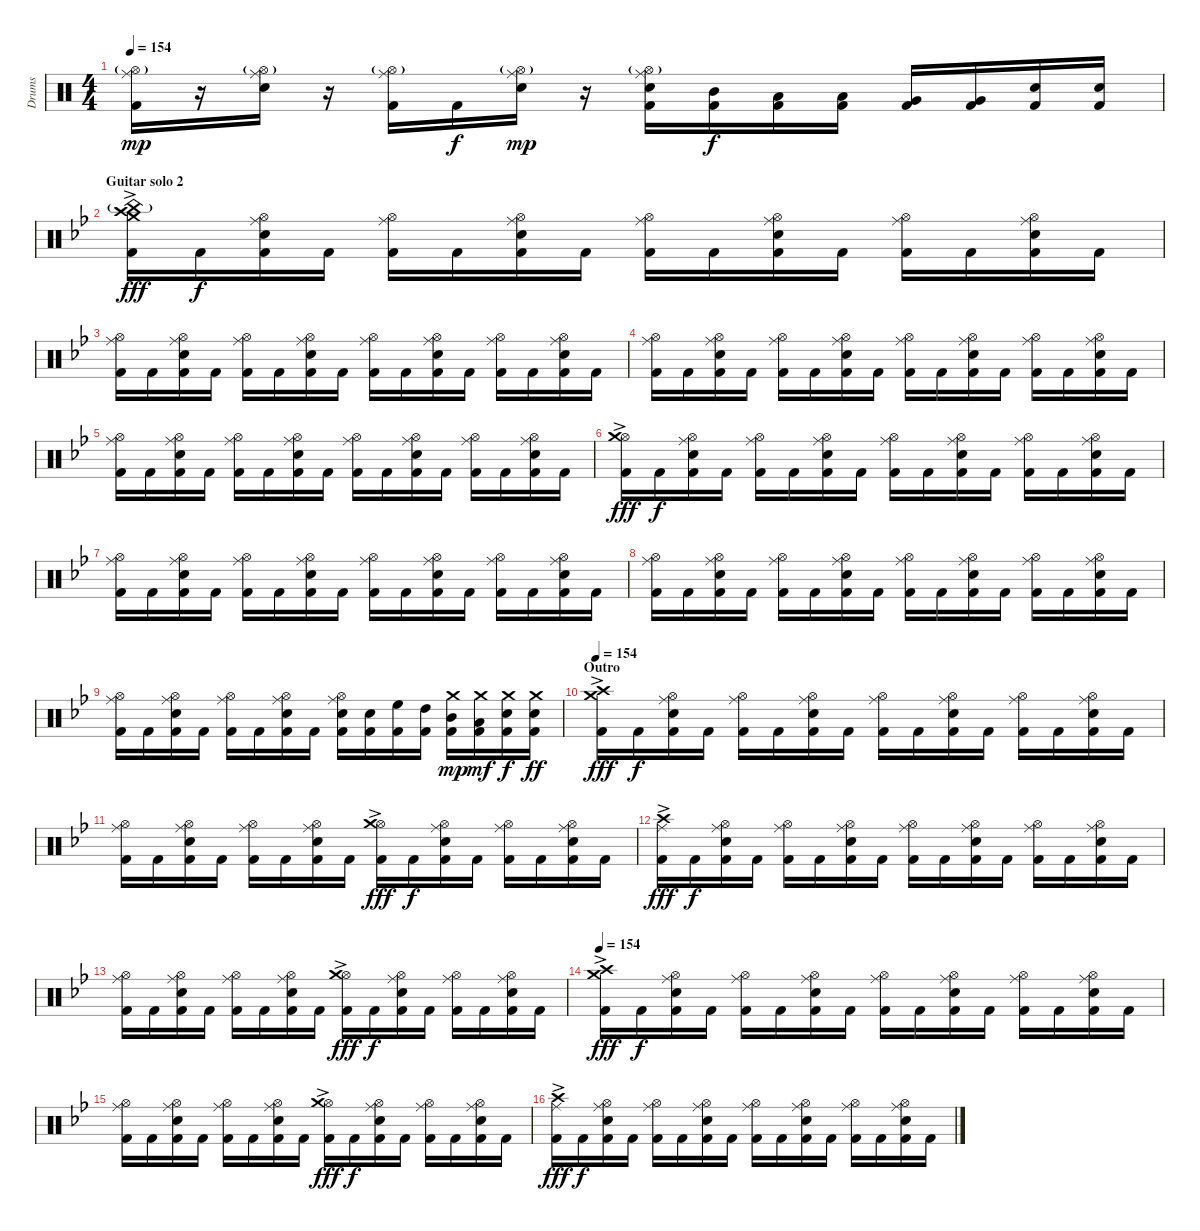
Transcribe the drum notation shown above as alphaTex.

\track ("Drums" "Drums") {instrument percussion}
\staff {score}
\articulation defaults
\ts (4 4)
\tempo 154
\clef neutral
\ks c
("Hi-Hat (open)"{g} "Ride (middle)" "Kick (hit) 2").16{dy mp} r.16 ("Hi-Hat (open)"{g} "Ride (middle)" "Electric Snare (hit)").16 r.16 ("Hi-Hat (open)"{g} "Ride (middle)" "Kick (hit) 2").16 "Kick (hit) 2".16{dy f} ("Hi-Hat (open)"{g} "Ride (middle)" "Electric Snare (hit)").16{dy mp} r.16 ("Hi-Hat (open)"{g} "Ride (middle)" "Electric Snare (hit)" "Kick (hit) 2").16 ("Mid Tom (hit)" "Kick (hit) 2").16{dy f} ("Low Tom (hit)" "Kick (hit) 2").16 ("Low Tom (hit)" "Kick (hit) 2").16 ("Very Low Tom (hit)" "Kick (hit) 2").16 ("Very Low Tom (hit)" "Kick (hit) 2").16 ("Electric Snare (hit)" "Kick (hit) 2").16 ("Electric Snare (hit)" "Kick (hit) 2").16 |
\section ("" "Guitar solo 2")
\ks gminor
("Crash high (hit)"{ac} "Crash medium (hit)"{ac} "China (hit)"{g} "Kick (hit) 2").16{dy fff} "Kick (hit) 2".16{dy f} ("Hi-Hat (open)" "Ride (middle)" "Electric Snare (hit)" "Kick (hit) 2").16 "Kick (hit) 2".16 ("Hi-Hat (open)" "Ride (middle)" "Kick (hit) 2").16 "Kick (hit) 2".16 ("Hi-Hat (open)" "Ride (middle)" "Electric Snare (hit)" "Kick (hit) 2").16 "Kick (hit) 2".16 ("Hi-Hat (open)" "Ride (middle)" "Kick (hit) 2").16 "Kick (hit) 2".16 ("Hi-Hat (open)" "Ride (middle)" "Electric Snare (hit)" "Kick (hit) 2").16 "Kick (hit) 2".16 ("Hi-Hat (open)" "Ride (middle)" "Kick (hit) 2").16 "Kick (hit) 2".16 ("Hi-Hat (open)" "Ride (middle)" "Electric Snare (hit)" "Kick (hit) 2").16 "Kick (hit) 2".16 |
("Hi-Hat (open)" "Ride (middle)" "Kick (hit) 2").16 "Kick (hit) 2".16 ("Hi-Hat (open)" "Ride (middle)" "Electric Snare (hit)" "Kick (hit) 2").16 "Kick (hit) 2".16 ("Hi-Hat (open)" "Ride (middle)" "Kick (hit) 2").16 "Kick (hit) 2".16 ("Hi-Hat (open)" "Ride (middle)" "Electric Snare (hit)" "Kick (hit) 2").16 "Kick (hit) 2".16 ("Hi-Hat (open)" "Ride (middle)" "Kick (hit) 2").16 "Kick (hit) 2".16 ("Hi-Hat (open)" "Ride (middle)" "Electric Snare (hit)" "Kick (hit) 2").16 "Kick (hit) 2".16 ("Hi-Hat (open)" "Ride (middle)" "Kick (hit) 2").16 "Kick (hit) 2".16 ("Hi-Hat (open)" "Ride (middle)" "Electric Snare (hit)" "Kick (hit) 2").16 "Kick (hit) 2".16 |
("Hi-Hat (open)" "Ride (middle)" "Kick (hit) 2").16 "Kick (hit) 2".16 ("Hi-Hat (open)" "Ride (middle)" "Electric Snare (hit)" "Kick (hit) 2").16 "Kick (hit) 2".16 ("Hi-Hat (open)" "Ride (middle)" "Kick (hit) 2").16 "Kick (hit) 2".16 ("Hi-Hat (open)" "Ride (middle)" "Electric Snare (hit)" "Kick (hit) 2").16 "Kick (hit) 2".16 ("Hi-Hat (open)" "Ride (middle)" "Kick (hit) 2").16 "Kick (hit) 2".16 ("Hi-Hat (open)" "Ride (middle)" "Electric Snare (hit)" "Kick (hit) 2").16 "Kick (hit) 2".16 ("Hi-Hat (open)" "Ride (middle)" "Kick (hit) 2").16 "Kick (hit) 2".16 ("Hi-Hat (open)" "Ride (middle)" "Electric Snare (hit)" "Kick (hit) 2").16 "Kick (hit) 2".16 |
("Hi-Hat (open)" "Ride (middle)" "Kick (hit) 2").16 "Kick (hit) 2".16 ("Hi-Hat (open)" "Ride (middle)" "Electric Snare (hit)" "Kick (hit) 2").16 "Kick (hit) 2".16 ("Hi-Hat (open)" "Ride (middle)" "Kick (hit) 2").16 "Kick (hit) 2".16 ("Hi-Hat (open)" "Ride (middle)" "Electric Snare (hit)" "Kick (hit) 2").16 "Kick (hit) 2".16 ("Hi-Hat (open)" "Ride (middle)" "Kick (hit) 2").16 "Kick (hit) 2".16 ("Hi-Hat (open)" "Ride (middle)" "Electric Snare (hit)" "Kick (hit) 2").16 "Kick (hit) 2".16 ("Hi-Hat (open)" "Ride (middle)" "Kick (hit) 2").16 "Kick (hit) 2".16 ("Hi-Hat (open)" "Ride (middle)" "Electric Snare (hit)" "Kick (hit) 2").16 "Kick (hit) 2".16 |
("Hi-Hat (open)" "Crash medium (hit)"{ac} "Kick (hit) 2").16{dy fff} "Kick (hit) 2".16{dy f} ("Hi-Hat (open)" "Ride (middle)" "Electric Snare (hit)" "Kick (hit) 2").16 "Kick (hit) 2".16 ("Hi-Hat (open)" "Ride (middle)" "Kick (hit) 2").16 "Kick (hit) 2".16 ("Hi-Hat (open)" "Ride (middle)" "Electric Snare (hit)" "Kick (hit) 2").16 "Kick (hit) 2".16 ("Hi-Hat (open)" "Ride (middle)" "Kick (hit) 2").16 "Kick (hit) 2".16 ("Hi-Hat (open)" "Ride (middle)" "Electric Snare (hit)" "Kick (hit) 2").16 "Kick (hit) 2".16 ("Hi-Hat (open)" "Ride (middle)" "Kick (hit) 2").16 "Kick (hit) 2".16 ("Hi-Hat (open)" "Ride (middle)" "Electric Snare (hit)" "Kick (hit) 2").16 "Kick (hit) 2".16 |
("Hi-Hat (open)" "Ride (middle)" "Kick (hit) 2").16 "Kick (hit) 2".16 ("Hi-Hat (open)" "Ride (middle)" "Electric Snare (hit)" "Kick (hit) 2").16 "Kick (hit) 2".16 ("Hi-Hat (open)" "Ride (middle)" "Kick (hit) 2").16 "Kick (hit) 2".16 ("Hi-Hat (open)" "Ride (middle)" "Electric Snare (hit)" "Kick (hit) 2").16 "Kick (hit) 2".16 ("Hi-Hat (open)" "Ride (middle)" "Kick (hit) 2").16 "Kick (hit) 2".16 ("Hi-Hat (open)" "Ride (middle)" "Electric Snare (hit)" "Kick (hit) 2").16 "Kick (hit) 2".16 ("Hi-Hat (open)" "Ride (middle)" "Kick (hit) 2").16 "Kick (hit) 2".16 ("Hi-Hat (open)" "Ride (middle)" "Electric Snare (hit)" "Kick (hit) 2").16 "Kick (hit) 2".16 |
("Hi-Hat (open)" "Ride (middle)" "Kick (hit) 2").16 "Kick (hit) 2".16 ("Hi-Hat (open)" "Ride (middle)" "Electric Snare (hit)" "Kick (hit) 2").16 "Kick (hit) 2".16 ("Hi-Hat (open)" "Ride (middle)" "Kick (hit) 2").16 "Kick (hit) 2".16 ("Hi-Hat (open)" "Ride (middle)" "Electric Snare (hit)" "Kick (hit) 2").16 "Kick (hit) 2".16 ("Hi-Hat (open)" "Ride (middle)" "Kick (hit) 2").16 "Kick (hit) 2".16 ("Hi-Hat (open)" "Ride (middle)" "Electric Snare (hit)" "Kick (hit) 2").16 "Kick (hit) 2".16 ("Hi-Hat (open)" "Ride (middle)" "Kick (hit) 2").16 "Kick (hit) 2".16 ("Hi-Hat (open)" "Ride (middle)" "Electric Snare (hit)" "Kick (hit) 2").16 "Kick (hit) 2".16 |
("Hi-Hat (open)" "Ride (middle)" "Kick (hit) 2").16 "Kick (hit) 2".16 ("Hi-Hat (open)" "Ride (middle)" "Electric Snare (hit)" "Kick (hit) 2").16 "Kick (hit) 2".16 ("Hi-Hat (open)" "Ride (middle)" "Kick (hit) 2").16 "Kick (hit) 2".16 ("Hi-Hat (open)" "Ride (middle)" "Electric Snare (hit)" "Kick (hit) 2").16 "Kick (hit) 2".16 ("Hi-Hat (open)" "Ride (middle)" "Electric Snare (hit)" "Kick (hit) 2").16 ("Electric Snare (hit)" "Kick (hit) 2").16 ("High Floor Tom (hit)" "Kick (hit) 2").16 ("High Tom (hit)" "Kick (hit) 2").16 ("Crash medium (hit)" "Mid Tom (hit)" "Kick (hit) 2").16{dy mp} ("Crash medium (hit)" "Low Tom (hit)" "Kick (hit) 2").16{dy mf} ("Crash medium (hit)" "Electric Snare (hit)" "Kick (hit) 2").16{dy f} ("Crash medium (hit)" "Electric Snare (hit)" "Kick (hit) 2").16{dy ff} |
\section ("" "Outro")
\tempo 154
("Crash high (hit)" "Crash medium (hit)"{ac} "Kick (hit) 2").16{dy fff} "Kick (hit) 2".16{dy f} ("Hi-Hat (open)" "Ride (middle)" "Electric Snare (hit)" "Kick (hit) 2").16 "Kick (hit) 2".16 ("Hi-Hat (open)" "Ride (middle)" "Kick (hit) 2").16 "Kick (hit) 2".16 ("Hi-Hat (open)" "Ride (middle)" "Electric Snare (hit)" "Kick (hit) 2").16 "Kick (hit) 2".16 ("Hi-Hat (open)" "Ride (middle)" "Kick (hit) 2").16 "Kick (hit) 2".16 ("Hi-Hat (open)" "Ride (middle)" "Electric Snare (hit)" "Kick (hit) 2").16 "Kick (hit) 2".16 ("Hi-Hat (open)" "Ride (middle)" "Kick (hit) 2").16 "Kick (hit) 2".16 ("Hi-Hat (open)" "Ride (middle)" "Electric Snare (hit)" "Kick (hit) 2").16 "Kick (hit) 2".16 |
("Hi-Hat (open)" "Ride (middle)" "Kick (hit) 2").16 "Kick (hit) 2".16 ("Hi-Hat (open)" "Ride (middle)" "Electric Snare (hit)" "Kick (hit) 2").16 "Kick (hit) 2".16 ("Hi-Hat (open)" "Ride (middle)" "Kick (hit) 2").16 "Kick (hit) 2".16 ("Hi-Hat (open)" "Ride (middle)" "Electric Snare (hit)" "Kick (hit) 2").16 "Kick (hit) 2".16 ("Hi-Hat (open)" "Crash medium (hit)"{ac} "Kick (hit) 2").16{dy fff} "Kick (hit) 2".16{dy f} ("Hi-Hat (open)" "Ride (middle)" "Electric Snare (hit)" "Kick (hit) 2").16 "Kick (hit) 2".16 ("Hi-Hat (open)" "Ride (middle)" "Kick (hit) 2").16 "Kick (hit) 2".16 ("Hi-Hat (open)" "Ride (middle)" "Electric Snare (hit)" "Kick (hit) 2").16 "Kick (hit) 2".16 |
("Crash high (hit)"{ac} "Ride (middle)" "Kick (hit) 2").16{dy fff} "Kick (hit) 2".16{dy f} ("Hi-Hat (open)" "Ride (middle)" "Electric Snare (hit)" "Kick (hit) 2").16 "Kick (hit) 2".16 ("Hi-Hat (open)" "Ride (middle)" "Kick (hit) 2").16 "Kick (hit) 2".16 ("Hi-Hat (open)" "Ride (middle)" "Electric Snare (hit)" "Kick (hit) 2").16 "Kick (hit) 2".16 ("Hi-Hat (open)" "Ride (middle)" "Kick (hit) 2").16 "Kick (hit) 2".16 ("Hi-Hat (open)" "Ride (middle)" "Electric Snare (hit)" "Kick (hit) 2").16 "Kick (hit) 2".16 ("Hi-Hat (open)" "Ride (middle)" "Kick (hit) 2").16 "Kick (hit) 2".16 ("Hi-Hat (open)" "Ride (middle)" "Electric Snare (hit)" "Kick (hit) 2").16 "Kick (hit) 2".16 |
("Hi-Hat (open)" "Ride (middle)" "Kick (hit) 2").16 "Kick (hit) 2".16 ("Hi-Hat (open)" "Ride (middle)" "Electric Snare (hit)" "Kick (hit) 2").16 "Kick (hit) 2".16 ("Hi-Hat (open)" "Ride (middle)" "Kick (hit) 2").16 "Kick (hit) 2".16 ("Hi-Hat (open)" "Ride (middle)" "Electric Snare (hit)" "Kick (hit) 2").16 "Kick (hit) 2".16 ("Hi-Hat (open)" "Crash medium (hit)"{ac} "Kick (hit) 2").16{dy fff} "Kick (hit) 2".16{dy f} ("Hi-Hat (open)" "Ride (middle)" "Electric Snare (hit)" "Kick (hit) 2").16 "Kick (hit) 2".16 ("Hi-Hat (open)" "Ride (middle)" "Kick (hit) 2").16 "Kick (hit) 2".16 ("Hi-Hat (open)" "Ride (middle)" "Electric Snare (hit)" "Kick (hit) 2").16 "Kick (hit) 2".16 |
\tempo 154
("Crash high (hit)" "Crash medium (hit)"{ac} "Kick (hit) 2").16{dy fff} "Kick (hit) 2".16{dy f} ("Hi-Hat (open)" "Ride (middle)" "Electric Snare (hit)" "Kick (hit) 2").16 "Kick (hit) 2".16 ("Hi-Hat (open)" "Ride (middle)" "Kick (hit) 2").16 "Kick (hit) 2".16 ("Hi-Hat (open)" "Ride (middle)" "Electric Snare (hit)" "Kick (hit) 2").16 "Kick (hit) 2".16 ("Hi-Hat (open)" "Ride (middle)" "Kick (hit) 2").16 "Kick (hit) 2".16 ("Hi-Hat (open)" "Ride (middle)" "Electric Snare (hit)" "Kick (hit) 2").16 "Kick (hit) 2".16 ("Hi-Hat (open)" "Ride (middle)" "Kick (hit) 2").16 "Kick (hit) 2".16 ("Hi-Hat (open)" "Ride (middle)" "Electric Snare (hit)" "Kick (hit) 2").16 "Kick (hit) 2".16 |
("Hi-Hat (open)" "Ride (middle)" "Kick (hit) 2").16 "Kick (hit) 2".16 ("Hi-Hat (open)" "Ride (middle)" "Electric Snare (hit)" "Kick (hit) 2").16 "Kick (hit) 2".16 ("Hi-Hat (open)" "Ride (middle)" "Kick (hit) 2").16 "Kick (hit) 2".16 ("Hi-Hat (open)" "Ride (middle)" "Electric Snare (hit)" "Kick (hit) 2").16 "Kick (hit) 2".16 ("Hi-Hat (open)" "Crash medium (hit)"{ac} "Kick (hit) 2").16{dy fff} "Kick (hit) 2".16{dy f} ("Hi-Hat (open)" "Ride (middle)" "Electric Snare (hit)" "Kick (hit) 2").16 "Kick (hit) 2".16 ("Hi-Hat (open)" "Ride (middle)" "Kick (hit) 2").16 "Kick (hit) 2".16 ("Hi-Hat (open)" "Ride (middle)" "Electric Snare (hit)" "Kick (hit) 2").16 "Kick (hit) 2".16 |
("Crash high (hit)"{ac} "Ride (middle)" "Kick (hit) 2").16{dy fff} "Kick (hit) 2".16{dy f} ("Hi-Hat (open)" "Ride (middle)" "Electric Snare (hit)" "Kick (hit) 2").16 "Kick (hit) 2".16 ("Hi-Hat (open)" "Ride (middle)" "Kick (hit) 2").16 "Kick (hit) 2".16 ("Hi-Hat (open)" "Ride (middle)" "Electric Snare (hit)" "Kick (hit) 2").16 "Kick (hit) 2".16 ("Hi-Hat (open)" "Ride (middle)" "Kick (hit) 2").16 "Kick (hit) 2".16 ("Hi-Hat (open)" "Ride (middle)" "Electric Snare (hit)" "Kick (hit) 2").16 "Kick (hit) 2".16 ("Hi-Hat (open)" "Ride (middle)" "Kick (hit) 2").16 "Kick (hit) 2".16 ("Hi-Hat (open)" "Ride (middle)" "Electric Snare (hit)" "Kick (hit) 2").16 "Kick (hit) 2".16
